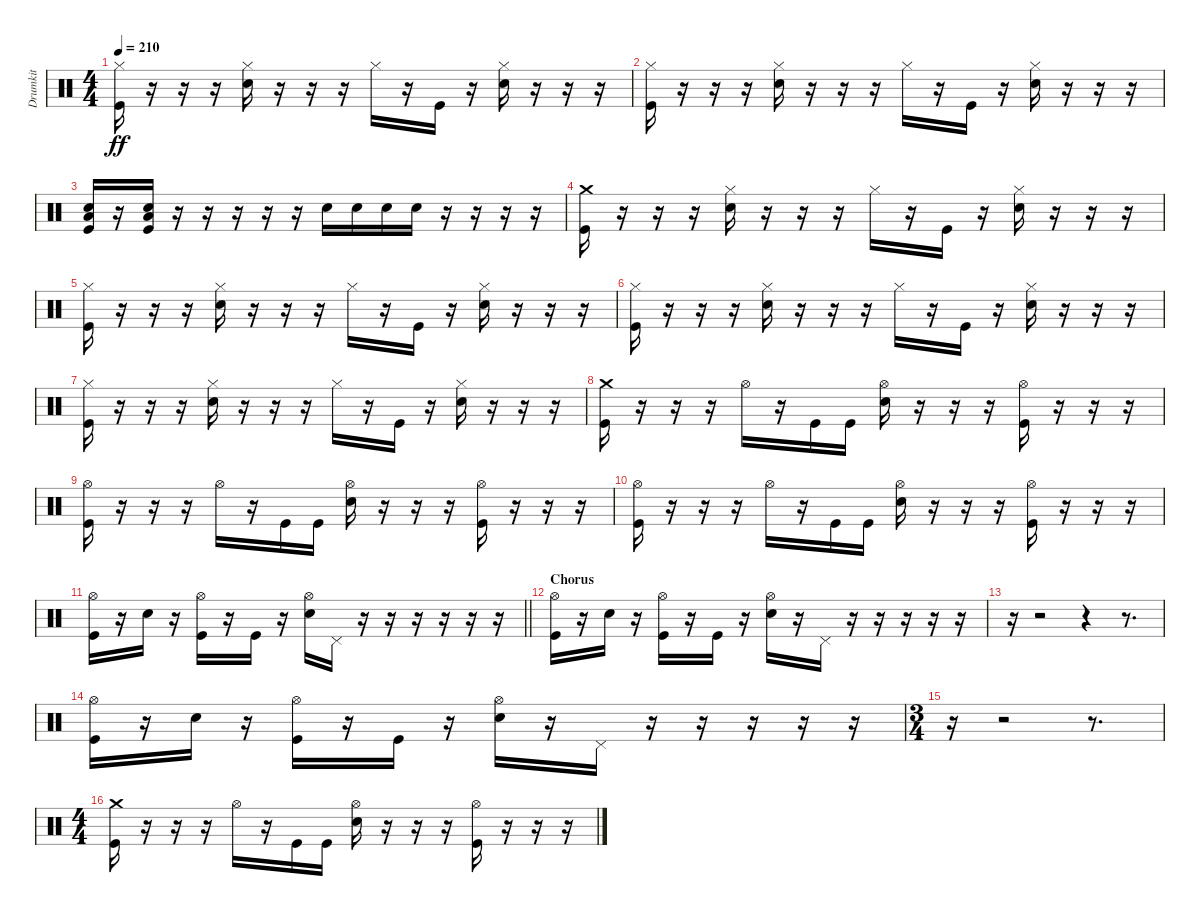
\track ("Drumkit" "Drumkit") {instrument percussion}
\staff {score}
\articulation defaults
\ts (4 4)
\tempo 210
\clef neutral
\ks c
("Hi-Hat (closed)" "Kick (hit)").16{dy ff} r.16 r.16 r.16 ("Hi-Hat (closed)" "Snare (hit) 2").16 r.16 r.16 r.16 "Hi-Hat (closed)".16 r.16 "Kick (hit)".16 r.16 ("Hi-Hat (closed)" "Snare (hit) 2").16 r.16 r.16 r.16 |
("Hi-Hat (closed)" "Kick (hit)").16 r.16 r.16 r.16 ("Hi-Hat (closed)" "Snare (hit) 2").16 r.16 r.16 r.16 "Hi-Hat (closed)".16 r.16 "Kick (hit)".16 r.16 ("Hi-Hat (closed)" "Snare (hit) 2").16 r.16 r.16 r.16 |
("Low Floor Tom (hit)" "Snare (hit) 2" "Kick (hit)").16 r.16 ("Low Floor Tom (hit)" "Snare (hit) 2" "Kick (hit)").16 r.16 r.16 r.16 r.16 r.16 "Snare (hit) 2".16 "Snare (hit) 2".16 "Snare (hit) 2".16 "Snare (hit) 2".16 r.16 r.16 r.16 r.16 |
("Crash medium (hit)" "Kick (hit)").16 r.16 r.16 r.16 ("Hi-Hat (closed)" "Snare (hit) 2").16 r.16 r.16 r.16 "Hi-Hat (closed)".16 r.16 "Kick (hit)".16 r.16 ("Hi-Hat (closed)" "Snare (hit) 2").16 r.16 r.16 r.16 |
("Hi-Hat (closed)" "Kick (hit)").16 r.16 r.16 r.16 ("Hi-Hat (closed)" "Snare (hit) 2").16 r.16 r.16 r.16 "Hi-Hat (closed)".16 r.16 "Kick (hit)".16 r.16 ("Hi-Hat (closed)" "Snare (hit) 2").16 r.16 r.16 r.16 |
("Hi-Hat (closed)" "Kick (hit)").16 r.16 r.16 r.16 ("Hi-Hat (closed)" "Snare (hit) 2").16 r.16 r.16 r.16 "Hi-Hat (closed)".16 r.16 "Kick (hit)".16 r.16 ("Hi-Hat (closed)" "Snare (hit) 2").16 r.16 r.16 r.16 |
("Hi-Hat (closed)" "Kick (hit)").16 r.16 r.16 r.16 ("Hi-Hat (closed)" "Snare (hit) 2").16 r.16 r.16 r.16 "Hi-Hat (closed)".16 r.16 "Kick (hit)".16 r.16 ("Hi-Hat (closed)" "Snare (hit) 2").16 r.16 r.16 r.16 |
("Crash medium (hit)" "Kick (hit)").16 r.16 r.16 r.16 "Hi-Hat (open)".16 r.16 "Kick (hit)".16 "Kick (hit)".16 ("Hi-Hat (open)" "Snare (hit) 2").16 r.16 r.16 r.16 ("Hi-Hat (open)" "Kick (hit)").16 r.16 r.16 r.16 |
("Hi-Hat (open)" "Kick (hit)").16 r.16 r.16 r.16 "Hi-Hat (open)".16 r.16 "Kick (hit)".16 "Kick (hit)".16 ("Hi-Hat (open)" "Snare (hit) 2").16 r.16 r.16 r.16 ("Hi-Hat (open)" "Kick (hit)").16 r.16 r.16 r.16 |
("Hi-Hat (open)" "Kick (hit)").16 r.16 r.16 r.16 "Hi-Hat (open)".16 r.16 "Kick (hit)".16 "Kick (hit)".16 ("Hi-Hat (open)" "Snare (hit) 2").16 r.16 r.16 r.16 ("Hi-Hat (open)" "Kick (hit)").16 r.16 r.16 r.16 |
\barLineRight lightlight
("Hi-Hat (open)" "Kick (hit)").16 r.16 "Snare (hit) 2".16 r.16 ("Hi-Hat (open)" "Kick (hit)").16 r.16 "Kick (hit)".16 r.16 ("Hi-Hat (open)" "Snare (hit) 2").16 "Pedal Hi-Hat (hit)".16 r.16 r.16 r.16 r.16 r.16 r.16 |
\section ("" "Chorus")
("Hi-Hat (open)" "Kick (hit)").16 r.16 "Snare (hit) 2".16 r.16 ("Hi-Hat (open)" "Kick (hit)").16 r.16 "Kick (hit)".16 r.16 ("Hi-Hat (open)" "Snare (hit) 2").16 r.16 "Pedal Hi-Hat (hit)".16 r.16 r.16 r.16 r.16 r.16 |
r.16 r.2 r.4 r.8{d} |
("Hi-Hat (open)" "Kick (hit)").16 r.16 "Snare (hit) 2".16 r.16 ("Hi-Hat (open)" "Kick (hit)").16 r.16 "Kick (hit)".16 r.16 ("Hi-Hat (open)" "Snare (hit) 2").16 r.16 "Pedal Hi-Hat (hit)".16 r.16 r.16 r.16 r.16 r.16 |
\ts (3 4)
r.16 r.2 r.8{d} |
\ts (4 4)
("Crash medium (hit)" "Kick (hit)").16 r.16 r.16 r.16 "Hi-Hat (open)".16 r.16 "Kick (hit)".16 "Kick (hit)".16 ("Hi-Hat (open)" "Snare (hit) 2").16 r.16 r.16 r.16 ("Hi-Hat (open)" "Kick (hit)").16 r.16 r.16 r.16
